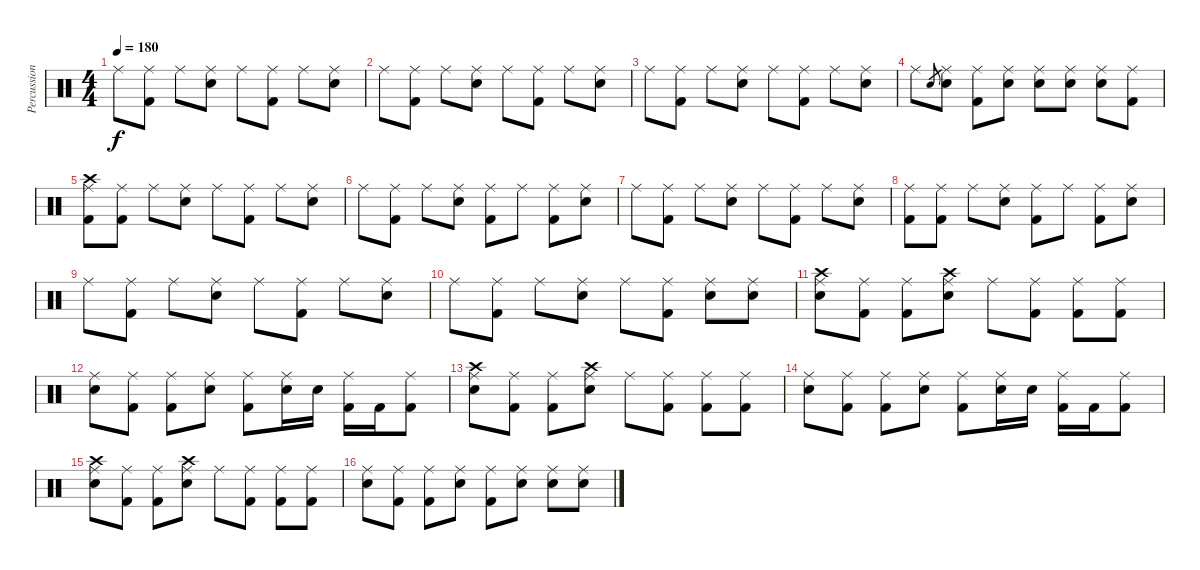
\track ("Percussion" "Percussion") {instrument percussion}
\staff {score}
\articulation defaults
\ts (4 4)
\tempo 180
\clef neutral
\ks c "Ride (middle)".8{dy f}
("Ride (middle)" "Kick (hit) 2").8 "Ride (middle)".8 ("Ride (middle)" "Electric Snare (hit)").8 "Ride (middle)".8 ("Ride (middle)" "Kick (hit) 2").8 "Ride (middle)".8 ("Ride (middle)" "Electric Snare (hit)").8 |
"Ride (middle)".8 ("Ride (middle)" "Kick (hit) 2").8 "Ride (middle)".8 ("Ride (middle)" "Electric Snare (hit)").8 "Ride (middle)".8 ("Ride (middle)" "Kick (hit) 2").8 "Ride (middle)".8 ("Ride (middle)" "Electric Snare (hit)").8 |
"Ride (middle)".8 ("Ride (middle)" "Kick (hit) 2").8 "Ride (middle)".8 ("Ride (middle)" "Electric Snare (hit)").8 "Ride (middle)".8 ("Ride (middle)" "Kick (hit) 2").8 "Ride (middle)".8 ("Ride (middle)" "Electric Snare (hit)").8 |
"Ride (middle)".8 "Electric Snare (hit)".8{gr} ("Ride (middle)" "Electric Snare (hit)").8 ("Ride (middle)" "Kick (hit) 2").8 ("Ride (middle)" "Electric Snare (hit)").8 ("Ride (middle)" "Electric Snare (hit)").8 ("Ride (middle)" "Electric Snare (hit)").8 ("Ride (middle)" "Electric Snare (hit)").8 ("Ride (middle)" "Kick (hit) 2").8 |
("Ride (middle)" "Crash high (hit)" "Kick (hit) 2").8 ("Ride (middle)" "Kick (hit) 2").8 "Ride (middle)".8 ("Ride (middle)" "Electric Snare (hit)").8 "Ride (middle)".8 ("Ride (middle)" "Kick (hit) 2").8 "Ride (middle)".8 ("Ride (middle)" "Electric Snare (hit)").8 |
"Ride (middle)".8 ("Ride (middle)" "Kick (hit) 2").8 "Ride (middle)".8 ("Ride (middle)" "Electric Snare (hit)").8 ("Ride (middle)" "Kick (hit) 2").8 "Ride (middle)".8 ("Ride (middle)" "Kick (hit) 2").8 ("Ride (middle)" "Electric Snare (hit)").8 |
"Ride (middle)".8 ("Ride (middle)" "Kick (hit) 2").8 "Ride (middle)".8 ("Ride (middle)" "Electric Snare (hit)").8 "Ride (middle)".8 ("Ride (middle)" "Kick (hit) 2").8 "Ride (middle)".8 ("Ride (middle)" "Electric Snare (hit)").8 |
("Ride (middle)" "Kick (hit) 2").8 ("Ride (middle)" "Kick (hit) 2").8 "Ride (middle)".8 ("Ride (middle)" "Electric Snare (hit)").8 ("Ride (middle)" "Kick (hit) 2").8 "Ride (middle)".8 ("Ride (middle)" "Kick (hit) 2").8 ("Ride (middle)" "Electric Snare (hit)").8 |
"Ride (middle)".8 ("Ride (middle)" "Kick (hit) 2").8 "Ride (middle)".8 ("Ride (middle)" "Electric Snare (hit)").8 "Ride (middle)".8 ("Ride (middle)" "Kick (hit) 2").8 "Ride (middle)".8 ("Ride (middle)" "Electric Snare (hit)").8 |
"Ride (middle)".8 ("Ride (middle)" "Kick (hit) 2").8 "Ride (middle)".8 ("Ride (middle)" "Electric Snare (hit)").8 "Ride (middle)".8 ("Ride (middle)" "Kick (hit) 2").8 ("Ride (middle)" "Electric Snare (hit)").8 ("Ride (middle)" "Electric Snare (hit)").8 |
("Ride (middle)" "Crash high (hit)" "Electric Snare (hit)").8 ("Ride (middle)" "Kick (hit) 2").8 ("Ride (middle)" "Kick (hit) 2").8 ("Ride (middle)" "Crash high (hit)" "Electric Snare (hit)").8 "Ride (middle)".8 ("Ride (middle)" "Kick (hit) 2").8 ("Ride (middle)" "Kick (hit) 2").8 ("Ride (middle)" "Kick (hit) 2").8 |
("Ride (middle)" "Electric Snare (hit)").8 ("Ride (middle)" "Kick (hit) 2").8 ("Ride (middle)" "Kick (hit) 2").8 ("Ride (middle)" "Electric Snare (hit)").8 ("Ride (middle)" "Kick (hit) 2").8 ("Ride (middle)" "Electric Snare (hit)").16 "Electric Snare (hit)".16 ("Ride (middle)" "Kick (hit) 2").16 "Kick (hit) 2".16 ("Ride (middle)" "Kick (hit) 2").8 |
("Ride (middle)" "Crash high (hit)" "Electric Snare (hit)").8 ("Ride (middle)" "Kick (hit) 2").8 ("Ride (middle)" "Kick (hit) 2").8 ("Ride (middle)" "Crash high (hit)" "Electric Snare (hit)").8 "Ride (middle)".8 ("Ride (middle)" "Kick (hit) 2").8 ("Ride (middle)" "Kick (hit) 2").8 ("Ride (middle)" "Kick (hit) 2").8 |
("Ride (middle)" "Electric Snare (hit)").8 ("Ride (middle)" "Kick (hit) 2").8 ("Ride (middle)" "Kick (hit) 2").8 ("Ride (middle)" "Electric Snare (hit)").8 ("Ride (middle)" "Kick (hit) 2").8 ("Ride (middle)" "Electric Snare (hit)").16 "Electric Snare (hit)".16 ("Ride (middle)" "Kick (hit) 2").16 "Kick (hit) 2".16 ("Ride (middle)" "Kick (hit) 2").8 |
("Ride (middle)" "Crash high (hit)" "Electric Snare (hit)").8 ("Ride (middle)" "Kick (hit) 2").8 ("Ride (middle)" "Kick (hit) 2").8 ("Ride (middle)" "Crash high (hit)" "Electric Snare (hit)").8 "Ride (middle)".8 ("Ride (middle)" "Kick (hit) 2").8 ("Ride (middle)" "Kick (hit) 2").8 ("Ride (middle)" "Kick (hit) 2").8 |
("Ride (middle)" "Electric Snare (hit)").8 ("Ride (middle)" "Kick (hit) 2").8 ("Ride (middle)" "Kick (hit) 2").8 ("Ride (middle)" "Electric Snare (hit)").8 ("Ride (middle)" "Kick (hit) 2").8 ("Ride (middle)" "Electric Snare (hit)").8 ("Ride (middle)" "Electric Snare (hit)").8 ("Ride (middle)" "Electric Snare (hit)").8
